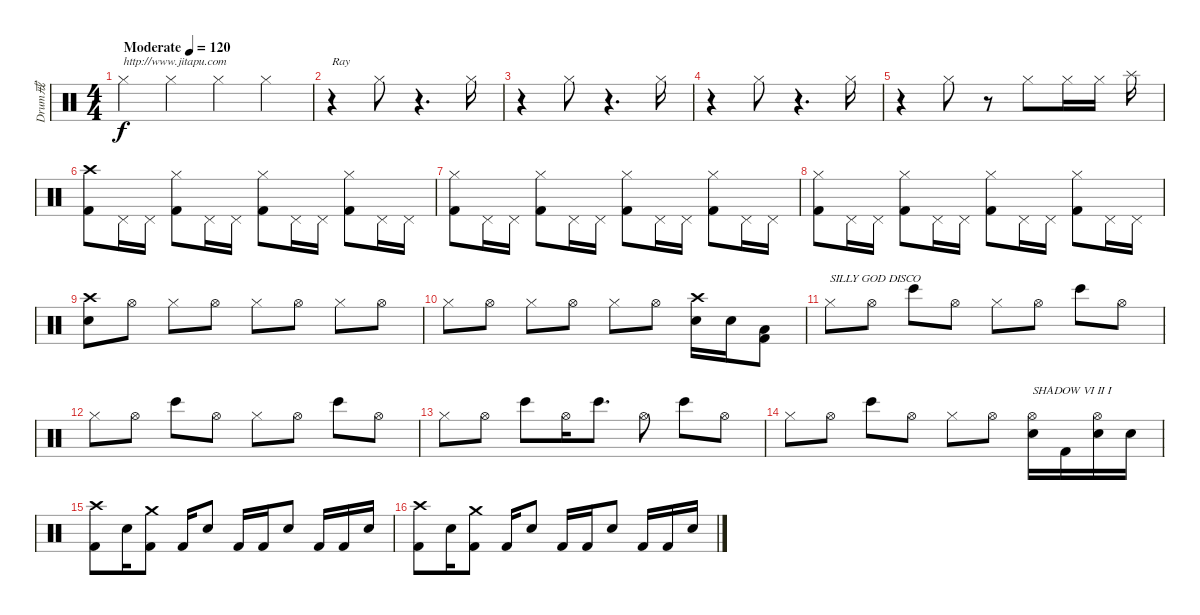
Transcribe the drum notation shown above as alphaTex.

\track ("Drum戒" "Drum戒") {instrument percussion}
\staff {score}
\articulation defaults
\ts (4 4)
\tempo (120 "Moderate")
\clef neutral
\ks c "Hi-Hat (closed)".4{txt "http://www.jitapu.com" dy f} "Hi-Hat (closed)".4 "Hi-Hat (closed)".4 "Hi-Hat (closed)".4
|
r.4{txt "Ray"} "Hi-Hat (closed)".8 r.4{d} "Hi-Hat (closed)".16 |
r.4 "Hi-Hat (closed)".8 r.4{d} "Hi-Hat (closed)".16 |
r.4 "Hi-Hat (closed)".8 r.4{d} "Hi-Hat (closed)".16 |
r.4 "Hi-Hat (closed)".8 r.8 "Hi-Hat (closed)".8 "Hi-Hat (closed)".16 "Hi-Hat (closed)".16 "Splash (hit)".16 |
("Crash high (hit)" "Kick (hit) 2").8 "Pedal Hi-Hat (hit)".16 "Pedal Hi-Hat (hit)".16 ("Hi-Hat (closed)" "Kick (hit) 2").8 "Pedal Hi-Hat (hit)".16 "Pedal Hi-Hat (hit)".16 ("Hi-Hat (closed)" "Kick (hit) 2").8 "Pedal Hi-Hat (hit)".16 "Pedal Hi-Hat (hit)".16 ("Hi-Hat (closed)" "Kick (hit) 2").8 "Pedal Hi-Hat (hit)".16 "Pedal Hi-Hat (hit)".16 |
("Hi-Hat (closed)" "Kick (hit) 2").8 "Pedal Hi-Hat (hit)".16 "Pedal Hi-Hat (hit)".16 ("Hi-Hat (closed)" "Kick (hit) 2").8 "Pedal Hi-Hat (hit)".16 "Pedal Hi-Hat (hit)".16 ("Hi-Hat (closed)" "Kick (hit) 2").8 "Pedal Hi-Hat (hit)".16 "Pedal Hi-Hat (hit)".16 ("Hi-Hat (closed)" "Kick (hit) 2").8 "Pedal Hi-Hat (hit)".16 "Pedal Hi-Hat (hit)".16 |
("Hi-Hat (closed)" "Kick (hit) 2").8 "Pedal Hi-Hat (hit)".16 "Pedal Hi-Hat (hit)".16 ("Hi-Hat (closed)" "Kick (hit) 2").8 "Pedal Hi-Hat (hit)".16 "Pedal Hi-Hat (hit)".16 ("Hi-Hat (closed)" "Kick (hit) 2").8 "Pedal Hi-Hat (hit)".16 "Pedal Hi-Hat (hit)".16 ("Hi-Hat (closed)" "Kick (hit) 2").8 "Pedal Hi-Hat (hit)".16 "Pedal Hi-Hat (hit)".16 |
("Crash high (hit)" "Snare (hit) 2").8 "Hi-Hat (open)".8 "Hi-Hat (closed)".8 "Hi-Hat (open)".8 "Hi-Hat (closed)".8 "Hi-Hat (open)".8 "Hi-Hat (closed)".8 "Hi-Hat (open)".8 |
"Hi-Hat (closed)".8 "Hi-Hat (open)".8 "Hi-Hat (closed)".8 "Hi-Hat (open)".8 "Hi-Hat (closed)".8 "Hi-Hat (open)".8 ("Crash high (hit)" "Snare (hit) 2").16 "Snare (hit) 2".16 ("Low Tom (hit)" "Kick (hit) 2").8 |
"Hi-Hat (closed)".8{txt "SILLY GOD DISCO"} "Hi-Hat (open)".8 "Bongo High (hit)".8 "Hi-Hat (open)".8 "Hi-Hat (closed)".8 "Hi-Hat (open)".8 "Bongo High (hit)".8 "Hi-Hat (open)".8 |
"Hi-Hat (closed)".8 "Hi-Hat (open)".8 "Bongo High (hit)".8 "Hi-Hat (open)".8 "Hi-Hat (closed)".8 "Hi-Hat (open)".8 "Bongo High (hit)".8 "Hi-Hat (open)".8 |
"Hi-Hat (closed)".8 "Hi-Hat (open)".8 "Bongo High (hit)".8 "Hi-Hat (open)".16 "Bongo High (hit)".8{d} "Hi-Hat (open)".8 "Bongo High (hit)".8 "Hi-Hat (open)".8 |
"Hi-Hat (closed)".8 "Hi-Hat (open)".8 "Bongo High (hit)".8 "Hi-Hat (open)".8 "Hi-Hat (closed)".8 "Hi-Hat (open)".8 ("Hi-Hat (open)" "Snare (hit) 2").16{txt "SHADOW VI II I"} "Kick (hit) 2".16 ("Hi-Hat (open)" "Snare (hit) 2").16 "Snare (hit) 2".16 |
("Crash high (hit)" "Kick (hit) 2").8 "Snare (hit) 2".16 ("Crash medium (hit)" "Kick (hit) 2").8 "Kick (hit) 2".16 "Snare (hit) 2".8 "Kick (hit) 2".16 "Kick (hit) 2".16 "Snare (hit) 2".8 "Kick (hit) 2".16 "Kick (hit) 2".16 "Snare (hit) 2".16 |
("Crash high (hit)" "Kick (hit) 2").8 "Snare (hit) 2".16 ("Crash medium (hit)" "Kick (hit) 2").8 "Kick (hit) 2".16 "Snare (hit) 2".8 "Kick (hit) 2".16 "Kick (hit) 2".16 "Snare (hit) 2".8 "Kick (hit) 2".16 "Kick (hit) 2".16 "Snare (hit) 2".16
